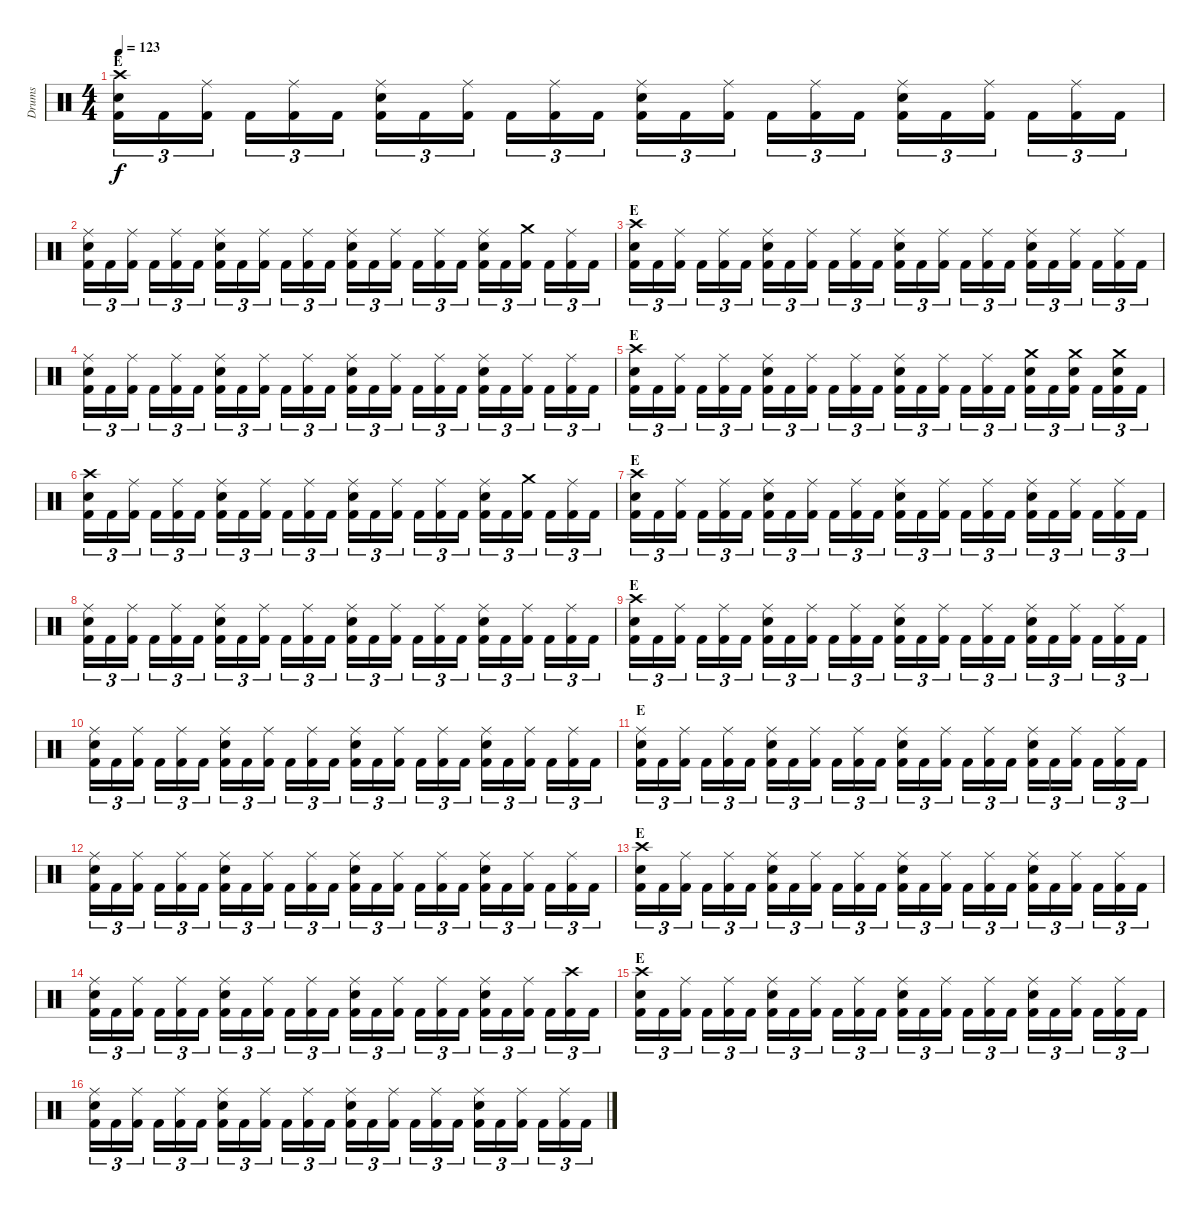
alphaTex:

\track ("Drums" "Drums") {instrument percussion}
\staff {score}
\articulation defaults
\ts (4 4)
\section ("" "E")
\tempo 123
\clef neutral
\ks c
("Crash high (hit)" "Snare (hit) 2" "Kick (hit) 2").16{tu (3 2) dy f} "Kick (hit) 2".16{tu (3 2)} ("Ride (middle)" "Kick (hit) 2").16{tu (3 2)} "Kick (hit) 2".16{tu (3 2)} ("Ride (middle)" "Kick (hit) 2").16{tu (3 2)} "Kick (hit) 2".16{tu (3 2)} ("Ride (middle)" "Snare (hit) 2" "Kick (hit) 2").16{tu (3 2)} "Kick (hit) 2".16{tu (3 2)} ("Ride (middle)" "Kick (hit) 2").16{tu (3 2)} "Kick (hit) 2".16{tu (3 2)} ("Ride (middle)" "Kick (hit) 2").16{tu (3 2)} "Kick (hit) 2".16{tu (3 2)} ("Ride (middle)" "Snare (hit) 2" "Kick (hit) 2").16{tu (3 2)} "Kick (hit) 2".16{tu (3 2)} ("Ride (middle)" "Kick (hit) 2").16{tu (3 2)} "Kick (hit) 2".16{tu (3 2)} ("Ride (middle)" "Kick (hit) 2").16{tu (3 2)} "Kick (hit) 2".16{tu (3 2)} ("Ride (middle)" "Snare (hit) 2" "Kick (hit) 2").16{tu (3 2)} "Kick (hit) 2".16{tu (3 2)} ("Ride (middle)" "Kick (hit) 2").16{tu (3 2)} "Kick (hit) 2".16{tu (3 2)} ("Ride (middle)" "Kick (hit) 2").16{tu (3 2)} "Kick (hit) 2".16{tu (3 2)} |
("Ride (middle)" "Snare (hit) 2" "Kick (hit) 2").16{tu (3 2)} "Kick (hit) 2".16{tu (3 2)} ("Ride (middle)" "Kick (hit) 2").16{tu (3 2)} "Kick (hit) 2".16{tu (3 2)} ("Ride (middle)" "Kick (hit) 2").16{tu (3 2)} "Kick (hit) 2".16{tu (3 2)} ("Ride (middle)" "Snare (hit) 2" "Kick (hit) 2").16{tu (3 2)} "Kick (hit) 2".16{tu (3 2)} ("Ride (middle)" "Kick (hit) 2").16{tu (3 2)} "Kick (hit) 2".16{tu (3 2)} ("Ride (middle)" "Kick (hit) 2").16{tu (3 2)} "Kick (hit) 2".16{tu (3 2)} ("Ride (middle)" "Snare (hit) 2" "Kick (hit) 2").16{tu (3 2)} "Kick (hit) 2".16{tu (3 2)} ("Ride (middle)" "Kick (hit) 2").16{tu (3 2)} "Kick (hit) 2".16{tu (3 2)} ("Ride (middle)" "Kick (hit) 2").16{tu (3 2)} "Kick (hit) 2".16{tu (3 2)} ("Ride (middle)" "Snare (hit) 2" "Kick (hit) 2").16{tu (3 2)} "Kick (hit) 2".16{tu (3 2)} ("Crash medium (hit)" "Kick (hit) 2").16{tu (3 2)} "Kick (hit) 2".16{tu (3 2)} ("Ride (middle)" "Kick (hit) 2").16{tu (3 2)} "Kick (hit) 2".16{tu (3 2)} |
\section ("" "E")
("Crash high (hit)" "Snare (hit) 2" "Kick (hit) 2").16{tu (3 2)} "Kick (hit) 2".16{tu (3 2)} ("Ride (middle)" "Kick (hit) 2").16{tu (3 2)} "Kick (hit) 2".16{tu (3 2)} ("Ride (middle)" "Kick (hit) 2").16{tu (3 2)} "Kick (hit) 2".16{tu (3 2)} ("Ride (middle)" "Snare (hit) 2" "Kick (hit) 2").16{tu (3 2)} "Kick (hit) 2".16{tu (3 2)} ("Ride (middle)" "Kick (hit) 2").16{tu (3 2)} "Kick (hit) 2".16{tu (3 2)} ("Ride (middle)" "Kick (hit) 2").16{tu (3 2)} "Kick (hit) 2".16{tu (3 2)} ("Ride (middle)" "Snare (hit) 2" "Kick (hit) 2").16{tu (3 2)} "Kick (hit) 2".16{tu (3 2)} ("Ride (middle)" "Kick (hit) 2").16{tu (3 2)} "Kick (hit) 2".16{tu (3 2)} ("Ride (middle)" "Kick (hit) 2").16{tu (3 2)} "Kick (hit) 2".16{tu (3 2)} ("Ride (middle)" "Snare (hit) 2" "Kick (hit) 2").16{tu (3 2)} "Kick (hit) 2".16{tu (3 2)} ("Ride (middle)" "Kick (hit) 2").16{tu (3 2)} "Kick (hit) 2".16{tu (3 2)} ("Ride (middle)" "Kick (hit) 2").16{tu (3 2)} "Kick (hit) 2".16{tu (3 2)} |
("Ride (middle)" "Snare (hit) 2" "Kick (hit) 2").16{tu (3 2)} "Kick (hit) 2".16{tu (3 2)} ("Ride (middle)" "Kick (hit) 2").16{tu (3 2)} "Kick (hit) 2".16{tu (3 2)} ("Ride (middle)" "Kick (hit) 2").16{tu (3 2)} "Kick (hit) 2".16{tu (3 2)} ("Ride (middle)" "Snare (hit) 2" "Kick (hit) 2").16{tu (3 2)} "Kick (hit) 2".16{tu (3 2)} ("Ride (middle)" "Kick (hit) 2").16{tu (3 2)} "Kick (hit) 2".16{tu (3 2)} ("Ride (middle)" "Kick (hit) 2").16{tu (3 2)} "Kick (hit) 2".16{tu (3 2)} ("Ride (middle)" "Snare (hit) 2" "Kick (hit) 2").16{tu (3 2)} "Kick (hit) 2".16{tu (3 2)} ("Ride (middle)" "Kick (hit) 2").16{tu (3 2)} "Kick (hit) 2".16{tu (3 2)} ("Ride (middle)" "Kick (hit) 2").16{tu (3 2)} "Kick (hit) 2".16{tu (3 2)} ("Ride (middle)" "Snare (hit) 2" "Kick (hit) 2").16{tu (3 2)} "Kick (hit) 2".16{tu (3 2)} ("Ride (middle)" "Kick (hit) 2").16{tu (3 2)} "Kick (hit) 2".16{tu (3 2)} ("Ride (middle)" "Kick (hit) 2").16{tu (3 2)} "Kick (hit) 2".16{tu (3 2)} |
\section ("" "E")
("Crash high (hit)" "Snare (hit) 2" "Kick (hit) 2").16{tu (3 2)} "Kick (hit) 2".16{tu (3 2)} ("Ride (middle)" "Kick (hit) 2").16{tu (3 2)} "Kick (hit) 2".16{tu (3 2)} ("Ride (middle)" "Kick (hit) 2").16{tu (3 2)} "Kick (hit) 2".16{tu (3 2)} ("Ride (middle)" "Snare (hit) 2" "Kick (hit) 2").16{tu (3 2)} "Kick (hit) 2".16{tu (3 2)} ("Ride (middle)" "Kick (hit) 2").16{tu (3 2)} "Kick (hit) 2".16{tu (3 2)} ("Ride (middle)" "Kick (hit) 2").16{tu (3 2)} "Kick (hit) 2".16{tu (3 2)} ("Ride (middle)" "Snare (hit) 2" "Kick (hit) 2").16{tu (3 2)} "Kick (hit) 2".16{tu (3 2)} ("Ride (middle)" "Kick (hit) 2").16{tu (3 2)} "Kick (hit) 2".16{tu (3 2)} ("Ride (middle)" "Kick (hit) 2").16{tu (3 2)} "Kick (hit) 2".16{tu (3 2)} ("Crash medium (hit)" "Snare (hit) 2" "Kick (hit) 2").16{tu (3 2)} "Kick (hit) 2".16{tu (3 2)} ("Crash medium (hit)" "Snare (hit) 2" "Kick (hit) 2").16{tu (3 2)} "Kick (hit) 2".16{tu (3 2)} ("Crash medium (hit)" "Snare (hit) 2" "Kick (hit) 2").16{tu (3 2)} "Kick (hit) 2".16{tu (3 2)} |
("Crash high (hit)" "Snare (hit) 2" "Kick (hit) 2").16{tu (3 2)} "Kick (hit) 2".16{tu (3 2)} ("Ride (middle)" "Kick (hit) 2").16{tu (3 2)} "Kick (hit) 2".16{tu (3 2)} ("Ride (middle)" "Kick (hit) 2").16{tu (3 2)} "Kick (hit) 2".16{tu (3 2)} ("Ride (middle)" "Snare (hit) 2" "Kick (hit) 2").16{tu (3 2)} "Kick (hit) 2".16{tu (3 2)} ("Ride (middle)" "Kick (hit) 2").16{tu (3 2)} "Kick (hit) 2".16{tu (3 2)} ("Ride (middle)" "Kick (hit) 2").16{tu (3 2)} "Kick (hit) 2".16{tu (3 2)} ("Ride (middle)" "Snare (hit) 2" "Kick (hit) 2").16{tu (3 2)} "Kick (hit) 2".16{tu (3 2)} ("Ride (middle)" "Kick (hit) 2").16{tu (3 2)} "Kick (hit) 2".16{tu (3 2)} ("Ride (middle)" "Kick (hit) 2").16{tu (3 2)} "Kick (hit) 2".16{tu (3 2)} ("Ride (middle)" "Snare (hit) 2" "Kick (hit) 2").16{tu (3 2)} "Kick (hit) 2".16{tu (3 2)} ("Crash medium (hit)" "Kick (hit) 2").16{tu (3 2)} "Kick (hit) 2".16{tu (3 2)} ("Ride (middle)" "Kick (hit) 2").16{tu (3 2)} "Kick (hit) 2".16{tu (3 2)} |
\section ("" "E")
("Crash high (hit)" "Snare (hit) 2" "Kick (hit) 2").16{tu (3 2)} "Kick (hit) 2".16{tu (3 2)} ("Ride (middle)" "Kick (hit) 2").16{tu (3 2)} "Kick (hit) 2".16{tu (3 2)} ("Ride (middle)" "Kick (hit) 2").16{tu (3 2)} "Kick (hit) 2".16{tu (3 2)} ("Ride (middle)" "Snare (hit) 2" "Kick (hit) 2").16{tu (3 2)} "Kick (hit) 2".16{tu (3 2)} ("Ride (middle)" "Kick (hit) 2").16{tu (3 2)} "Kick (hit) 2".16{tu (3 2)} ("Ride (middle)" "Kick (hit) 2").16{tu (3 2)} "Kick (hit) 2".16{tu (3 2)} ("Ride (middle)" "Snare (hit) 2" "Kick (hit) 2").16{tu (3 2)} "Kick (hit) 2".16{tu (3 2)} ("Ride (middle)" "Kick (hit) 2").16{tu (3 2)} "Kick (hit) 2".16{tu (3 2)} ("Ride (middle)" "Kick (hit) 2").16{tu (3 2)} "Kick (hit) 2".16{tu (3 2)} ("Ride (middle)" "Snare (hit) 2" "Kick (hit) 2").16{tu (3 2)} "Kick (hit) 2".16{tu (3 2)} ("Ride (middle)" "Kick (hit) 2").16{tu (3 2)} "Kick (hit) 2".16{tu (3 2)} ("Ride (middle)" "Kick (hit) 2").16{tu (3 2)} "Kick (hit) 2".16{tu (3 2)} |
("Ride (middle)" "Snare (hit) 2" "Kick (hit) 2").16{tu (3 2)} "Kick (hit) 2".16{tu (3 2)} ("Ride (middle)" "Kick (hit) 2").16{tu (3 2)} "Kick (hit) 2".16{tu (3 2)} ("Ride (middle)" "Kick (hit) 2").16{tu (3 2)} "Kick (hit) 2".16{tu (3 2)} ("Ride (middle)" "Snare (hit) 2" "Kick (hit) 2").16{tu (3 2)} "Kick (hit) 2".16{tu (3 2)} ("Ride (middle)" "Kick (hit) 2").16{tu (3 2)} "Kick (hit) 2".16{tu (3 2)} ("Ride (middle)" "Kick (hit) 2").16{tu (3 2)} "Kick (hit) 2".16{tu (3 2)} ("Ride (middle)" "Snare (hit) 2" "Kick (hit) 2").16{tu (3 2)} "Kick (hit) 2".16{tu (3 2)} ("Ride (middle)" "Kick (hit) 2").16{tu (3 2)} "Kick (hit) 2".16{tu (3 2)} ("Ride (middle)" "Kick (hit) 2").16{tu (3 2)} "Kick (hit) 2".16{tu (3 2)} ("Ride (middle)" "Snare (hit) 2" "Kick (hit) 2").16{tu (3 2)} "Kick (hit) 2".16{tu (3 2)} ("Ride (middle)" "Kick (hit) 2").16{tu (3 2)} "Kick (hit) 2".16{tu (3 2)} ("Ride (middle)" "Kick (hit) 2").16{tu (3 2)} "Kick (hit) 2".16{tu (3 2)} |
\section ("" "E")
("Crash high (hit)" "Snare (hit) 2" "Kick (hit) 2").16{tu (3 2)} "Kick (hit) 2".16{tu (3 2)} ("Ride (middle)" "Kick (hit) 2").16{tu (3 2)} "Kick (hit) 2".16{tu (3 2)} ("Ride (middle)" "Kick (hit) 2").16{tu (3 2)} "Kick (hit) 2".16{tu (3 2)} ("Ride (middle)" "Snare (hit) 2" "Kick (hit) 2").16{tu (3 2)} "Kick (hit) 2".16{tu (3 2)} ("Ride (middle)" "Kick (hit) 2").16{tu (3 2)} "Kick (hit) 2".16{tu (3 2)} ("Ride (middle)" "Kick (hit) 2").16{tu (3 2)} "Kick (hit) 2".16{tu (3 2)} ("Ride (middle)" "Snare (hit) 2" "Kick (hit) 2").16{tu (3 2)} "Kick (hit) 2".16{tu (3 2)} ("Ride (middle)" "Kick (hit) 2").16{tu (3 2)} "Kick (hit) 2".16{tu (3 2)} ("Ride (middle)" "Kick (hit) 2").16{tu (3 2)} "Kick (hit) 2".16{tu (3 2)} ("Ride (middle)" "Snare (hit) 2" "Kick (hit) 2").16{tu (3 2)} "Kick (hit) 2".16{tu (3 2)} ("Ride (middle)" "Kick (hit) 2").16{tu (3 2)} "Kick (hit) 2".16{tu (3 2)} ("Ride (middle)" "Kick (hit) 2").16{tu (3 2)} "Kick (hit) 2".16{tu (3 2)} |
("Ride (middle)" "Snare (hit) 2" "Kick (hit) 2").16{tu (3 2)} "Kick (hit) 2".16{tu (3 2)} ("Ride (middle)" "Kick (hit) 2").16{tu (3 2)} "Kick (hit) 2".16{tu (3 2)} ("Ride (middle)" "Kick (hit) 2").16{tu (3 2)} "Kick (hit) 2".16{tu (3 2)} ("Ride (middle)" "Snare (hit) 2" "Kick (hit) 2").16{tu (3 2)} "Kick (hit) 2".16{tu (3 2)} ("Ride (middle)" "Kick (hit) 2").16{tu (3 2)} "Kick (hit) 2".16{tu (3 2)} ("Ride (middle)" "Kick (hit) 2").16{tu (3 2)} "Kick (hit) 2".16{tu (3 2)} ("Ride (middle)" "Snare (hit) 2" "Kick (hit) 2").16{tu (3 2)} "Kick (hit) 2".16{tu (3 2)} ("Ride (middle)" "Kick (hit) 2").16{tu (3 2)} "Kick (hit) 2".16{tu (3 2)} ("Ride (middle)" "Kick (hit) 2").16{tu (3 2)} "Kick (hit) 2".16{tu (3 2)} ("Ride (middle)" "Snare (hit) 2" "Kick (hit) 2").16{tu (3 2)} "Kick (hit) 2".16{tu (3 2)} ("Ride (middle)" "Kick (hit) 2").16{tu (3 2)} "Kick (hit) 2".16{tu (3 2)} ("Ride (middle)" "Kick (hit) 2").16{tu (3 2)} "Kick (hit) 2".16{tu (3 2)} |
\section ("" "E")
("Ride (middle)" "Snare (hit) 2" "Kick (hit) 2").16{tu (3 2)} "Kick (hit) 2".16{tu (3 2)} ("Ride (middle)" "Kick (hit) 2").16{tu (3 2)} "Kick (hit) 2".16{tu (3 2)} ("Ride (middle)" "Kick (hit) 2").16{tu (3 2)} "Kick (hit) 2".16{tu (3 2)} ("Ride (middle)" "Snare (hit) 2" "Kick (hit) 2").16{tu (3 2)} "Kick (hit) 2".16{tu (3 2)} ("Ride (middle)" "Kick (hit) 2").16{tu (3 2)} "Kick (hit) 2".16{tu (3 2)} ("Ride (middle)" "Kick (hit) 2").16{tu (3 2)} "Kick (hit) 2".16{tu (3 2)} ("Ride (middle)" "Snare (hit) 2" "Kick (hit) 2").16{tu (3 2)} "Kick (hit) 2".16{tu (3 2)} ("Ride (middle)" "Kick (hit) 2").16{tu (3 2)} "Kick (hit) 2".16{tu (3 2)} ("Ride (middle)" "Kick (hit) 2").16{tu (3 2)} "Kick (hit) 2".16{tu (3 2)} ("Ride (middle)" "Snare (hit) 2" "Kick (hit) 2").16{tu (3 2)} "Kick (hit) 2".16{tu (3 2)} ("Ride (middle)" "Kick (hit) 2").16{tu (3 2)} "Kick (hit) 2".16{tu (3 2)} ("Ride (middle)" "Kick (hit) 2").16{tu (3 2)} "Kick (hit) 2".16{tu (3 2)} |
("Ride (middle)" "Snare (hit) 2" "Kick (hit) 2").16{tu (3 2)} "Kick (hit) 2".16{tu (3 2)} ("Ride (middle)" "Kick (hit) 2").16{tu (3 2)} "Kick (hit) 2".16{tu (3 2)} ("Ride (middle)" "Kick (hit) 2").16{tu (3 2)} "Kick (hit) 2".16{tu (3 2)} ("Ride (middle)" "Snare (hit) 2" "Kick (hit) 2").16{tu (3 2)} "Kick (hit) 2".16{tu (3 2)} ("Ride (middle)" "Kick (hit) 2").16{tu (3 2)} "Kick (hit) 2".16{tu (3 2)} ("Ride (middle)" "Kick (hit) 2").16{tu (3 2)} "Kick (hit) 2".16{tu (3 2)} ("Ride (middle)" "Snare (hit) 2" "Kick (hit) 2").16{tu (3 2)} "Kick (hit) 2".16{tu (3 2)} ("Ride (middle)" "Kick (hit) 2").16{tu (3 2)} "Kick (hit) 2".16{tu (3 2)} ("Ride (middle)" "Kick (hit) 2").16{tu (3 2)} "Kick (hit) 2".16{tu (3 2)} ("Ride (middle)" "Snare (hit) 2" "Kick (hit) 2").16{tu (3 2)} "Kick (hit) 2".16{tu (3 2)} ("Ride (middle)" "Kick (hit) 2").16{tu (3 2)} "Kick (hit) 2".16{tu (3 2)} ("Ride (middle)" "Kick (hit) 2").16{tu (3 2)} "Kick (hit) 2".16{tu (3 2)} |
\section ("" "E")
("Crash high (hit)" "Snare (hit) 2" "Kick (hit) 2").16{tu (3 2)} "Kick (hit) 2".16{tu (3 2)} ("Ride (middle)" "Kick (hit) 2").16{tu (3 2)} "Kick (hit) 2".16{tu (3 2)} ("Ride (middle)" "Kick (hit) 2").16{tu (3 2)} "Kick (hit) 2".16{tu (3 2)} ("Ride (middle)" "Snare (hit) 2" "Kick (hit) 2").16{tu (3 2)} "Kick (hit) 2".16{tu (3 2)} ("Ride (middle)" "Kick (hit) 2").16{tu (3 2)} "Kick (hit) 2".16{tu (3 2)} ("Ride (middle)" "Kick (hit) 2").16{tu (3 2)} "Kick (hit) 2".16{tu (3 2)} ("Ride (middle)" "Snare (hit) 2" "Kick (hit) 2").16{tu (3 2)} "Kick (hit) 2".16{tu (3 2)} ("Ride (middle)" "Kick (hit) 2").16{tu (3 2)} "Kick (hit) 2".16{tu (3 2)} ("Ride (middle)" "Kick (hit) 2").16{tu (3 2)} "Kick (hit) 2".16{tu (3 2)} ("Ride (middle)" "Snare (hit) 2" "Kick (hit) 2").16{tu (3 2)} "Kick (hit) 2".16{tu (3 2)} ("Ride (middle)" "Kick (hit) 2").16{tu (3 2)} "Kick (hit) 2".16{tu (3 2)} ("Ride (middle)" "Kick (hit) 2").16{tu (3 2)} "Kick (hit) 2".16{tu (3 2)} |
("Ride (middle)" "Snare (hit) 2" "Kick (hit) 2").16{tu (3 2)} "Kick (hit) 2".16{tu (3 2)} ("Ride (middle)" "Kick (hit) 2").16{tu (3 2)} "Kick (hit) 2".16{tu (3 2)} ("Ride (middle)" "Kick (hit) 2").16{tu (3 2)} "Kick (hit) 2".16{tu (3 2)} ("Ride (middle)" "Snare (hit) 2" "Kick (hit) 2").16{tu (3 2)} "Kick (hit) 2".16{tu (3 2)} ("Ride (middle)" "Kick (hit) 2").16{tu (3 2)} "Kick (hit) 2".16{tu (3 2)} ("Ride (middle)" "Kick (hit) 2").16{tu (3 2)} "Kick (hit) 2".16{tu (3 2)} ("Ride (middle)" "Snare (hit) 2" "Kick (hit) 2").16{tu (3 2)} "Kick (hit) 2".16{tu (3 2)} ("Ride (middle)" "Kick (hit) 2").16{tu (3 2)} "Kick (hit) 2".16{tu (3 2)} ("Ride (middle)" "Kick (hit) 2").16{tu (3 2)} "Kick (hit) 2".16{tu (3 2)} ("Ride (middle)" "Snare (hit) 2" "Kick (hit) 2").16{tu (3 2)} "Kick (hit) 2".16{tu (3 2)} ("Ride (middle)" "Kick (hit) 2").16{tu (3 2)} "Kick (hit) 2".16{tu (3 2)} ("Crash high (hit)" "Kick (hit) 2").16{tu (3 2)} "Kick (hit) 2".16{tu (3 2)} |
\section ("" "E")
("Crash high (hit)" "Snare (hit) 2" "Kick (hit) 2").16{tu (3 2)} "Kick (hit) 2".16{tu (3 2)} ("Ride (middle)" "Kick (hit) 2").16{tu (3 2)} "Kick (hit) 2".16{tu (3 2)} ("Ride (middle)" "Kick (hit) 2").16{tu (3 2)} "Kick (hit) 2".16{tu (3 2)} ("Ride (middle)" "Snare (hit) 2" "Kick (hit) 2").16{tu (3 2)} "Kick (hit) 2".16{tu (3 2)} ("Ride (middle)" "Kick (hit) 2").16{tu (3 2)} "Kick (hit) 2".16{tu (3 2)} ("Ride (middle)" "Kick (hit) 2").16{tu (3 2)} "Kick (hit) 2".16{tu (3 2)} ("Ride (middle)" "Snare (hit) 2" "Kick (hit) 2").16{tu (3 2)} "Kick (hit) 2".16{tu (3 2)} ("Ride (middle)" "Kick (hit) 2").16{tu (3 2)} "Kick (hit) 2".16{tu (3 2)} ("Ride (middle)" "Kick (hit) 2").16{tu (3 2)} "Kick (hit) 2".16{tu (3 2)} ("Ride (middle)" "Snare (hit) 2" "Kick (hit) 2").16{tu (3 2)} "Kick (hit) 2".16{tu (3 2)} ("Ride (middle)" "Kick (hit) 2").16{tu (3 2)} "Kick (hit) 2".16{tu (3 2)} ("Ride (middle)" "Kick (hit) 2").16{tu (3 2)} "Kick (hit) 2".16{tu (3 2)} |
("Ride (middle)" "Snare (hit) 2" "Kick (hit) 2").16{tu (3 2)} "Kick (hit) 2".16{tu (3 2)} ("Ride (middle)" "Kick (hit) 2").16{tu (3 2)} "Kick (hit) 2".16{tu (3 2)} ("Ride (middle)" "Kick (hit) 2").16{tu (3 2)} "Kick (hit) 2".16{tu (3 2)} ("Ride (middle)" "Snare (hit) 2" "Kick (hit) 2").16{tu (3 2)} "Kick (hit) 2".16{tu (3 2)} ("Ride (middle)" "Kick (hit) 2").16{tu (3 2)} "Kick (hit) 2".16{tu (3 2)} ("Ride (middle)" "Kick (hit) 2").16{tu (3 2)} "Kick (hit) 2".16{tu (3 2)} ("Ride (middle)" "Snare (hit) 2" "Kick (hit) 2").16{tu (3 2)} "Kick (hit) 2".16{tu (3 2)} ("Ride (middle)" "Kick (hit) 2").16{tu (3 2)} "Kick (hit) 2".16{tu (3 2)} ("Ride (middle)" "Kick (hit) 2").16{tu (3 2)} "Kick (hit) 2".16{tu (3 2)} ("Ride (middle)" "Snare (hit) 2" "Kick (hit) 2").16{tu (3 2)} "Kick (hit) 2".16{tu (3 2)} ("Ride (middle)" "Kick (hit) 2").16{tu (3 2)} "Kick (hit) 2".16{tu (3 2)} ("Ride (middle)" "Kick (hit) 2").16{tu (3 2)} "Kick (hit) 2".16{tu (3 2)}
